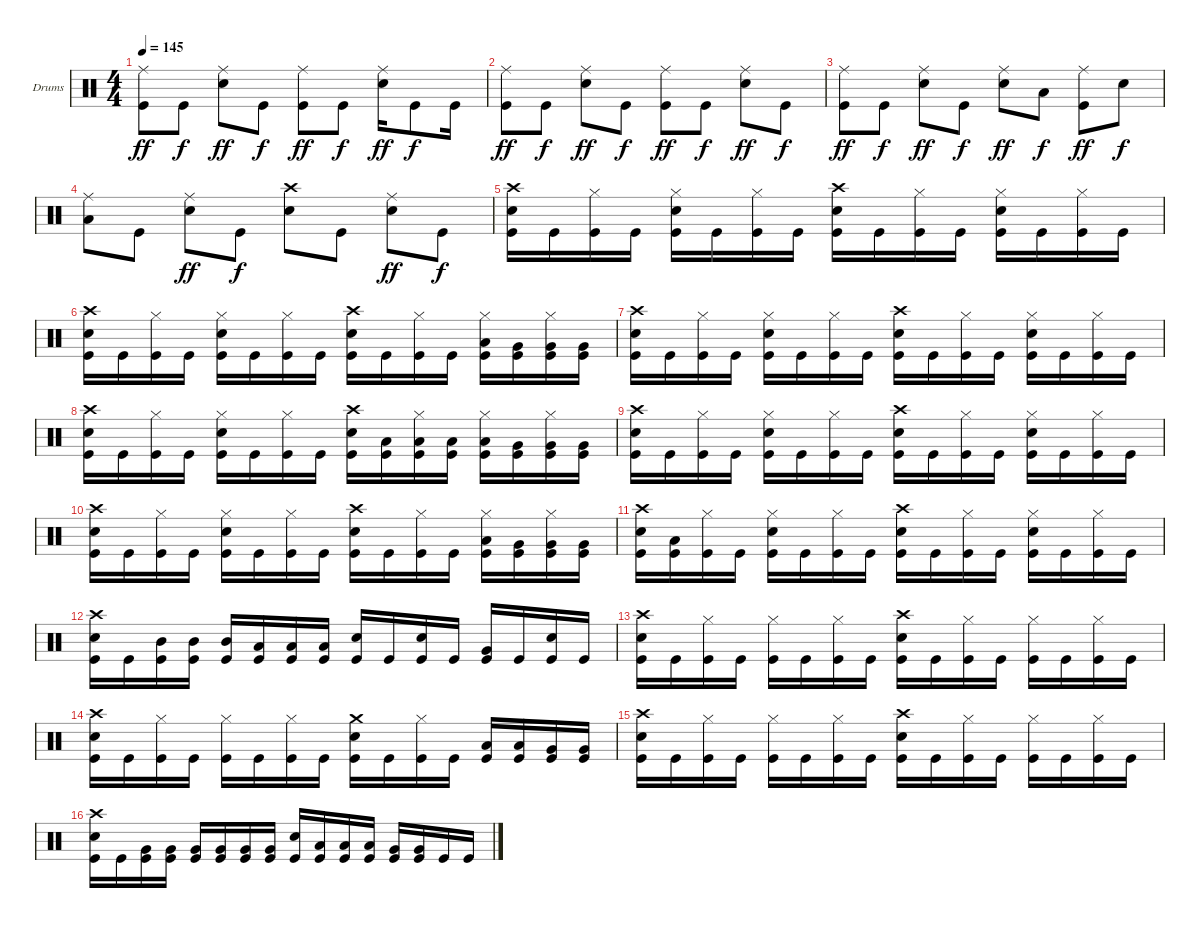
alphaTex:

\bracketExtendMode groupsimilarinstruments
\firstSystemTrackNameOrientation horizontal
\otherSystemsTrackNameOrientation horizontal
\track ("Drumkit" "Drums") {instrument percussion}
\staff {score}
\articulation defaults
\ts (4 4)
\tempo 145
\clef neutral
\ks c
("Ride (middle)" "Kick (hit)").8{dy ff} "Kick (hit)".8{dy f} ("Ride (middle)" "Snare (hit) 2").8{dy ff} "Kick (hit)".8{dy f} ("Ride (middle)" "Kick (hit)").8{dy ff} "Kick (hit)".8{dy f} ("Ride (middle)" "Snare (hit) 2").16{dy ff} "Kick (hit)".8{dy f} "Kick (hit)".16 |
("Ride (middle)" "Kick (hit)").8{dy ff} "Kick (hit)".8{dy f} ("Ride (middle)" "Snare (hit) 2").8{dy ff} "Kick (hit)".8{dy f} ("Ride (middle)" "Kick (hit)").8{dy ff} "Kick (hit)".8{dy f} ("Ride (middle)" "Snare (hit) 2").8{dy ff} "Kick (hit)".8{dy f} |
("Ride (middle)" "Kick (hit)").8{dy ff} "Kick (hit)".8{dy f} ("Ride (middle)" "Snare (hit) 2").8{dy ff} "Kick (hit)".8{dy f} ("Ride (middle)" "Snare (hit) 2").8{dy ff} "Low Tom (hit)".8{dy f} ("Ride (middle)" "Kick (hit)").8{dy ff} "Snare (hit) 2".8{dy f} |
("Ride (middle)" "Low Tom (hit)").8 "Kick (hit)".8 ("Ride (middle)" "Snare (hit) 2").8{dy ff} "Kick (hit)".8{dy f} ("Crash high (hit)" "Snare (hit) 2").8 "Kick (hit)".8 ("Ride (middle)" "Snare (hit) 2").8{dy ff} "Kick (hit)".8{dy f} |
("Crash high (hit)" "Snare (hit) 2" "Kick (hit)").16 "Kick (hit)".16 ("Hi-Hat (closed)" "Kick (hit)").16 "Kick (hit)".16 ("Hi-Hat (closed)" "Snare (hit) 2" "Kick (hit)").16 "Kick (hit)".16 ("Hi-Hat (closed)" "Kick (hit)").16 "Kick (hit)".16 ("Crash high (hit)" "Snare (hit) 2" "Kick (hit)").16 "Kick (hit)".16 ("Hi-Hat (closed)" "Kick (hit)").16 "Kick (hit)".16 ("Hi-Hat (closed)" "Snare (hit) 2" "Kick (hit)").16 "Kick (hit)".16 ("Hi-Hat (closed)" "Kick (hit)").16 "Kick (hit)".16 |
("Crash high (hit)" "Snare (hit) 2" "Kick (hit)").16 "Kick (hit)".16 ("Hi-Hat (closed)" "Kick (hit)").16 "Kick (hit)".16 ("Hi-Hat (closed)" "Snare (hit) 2" "Kick (hit)").16 "Kick (hit)".16 ("Hi-Hat (closed)" "Kick (hit)").16 "Kick (hit)".16 ("Crash high (hit)" "Snare (hit) 2" "Kick (hit)").16 "Kick (hit)".16 ("Hi-Hat (closed)" "Kick (hit)").16 "Kick (hit)".16 ("Hi-Hat (closed)" "Low Tom (hit)" "Kick (hit)").16 ("Very Low Tom (hit)" "Kick (hit)").16 ("Hi-Hat (closed)" "Very Low Tom (hit)" "Kick (hit)").16 ("Very Low Tom (hit)" "Kick (hit)").16 |
("Crash high (hit)" "Snare (hit) 2" "Kick (hit)").16 "Kick (hit)".16 ("Hi-Hat (closed)" "Kick (hit)").16 "Kick (hit)".16 ("Hi-Hat (closed)" "Snare (hit) 2" "Kick (hit)").16 "Kick (hit)".16 ("Hi-Hat (closed)" "Kick (hit)").16 "Kick (hit)".16 ("Crash high (hit)" "Snare (hit) 2" "Kick (hit)").16 "Kick (hit)".16 ("Hi-Hat (closed)" "Kick (hit)").16 "Kick (hit)".16 ("Hi-Hat (closed)" "Snare (hit) 2" "Kick (hit)").16 "Kick (hit)".16 ("Hi-Hat (closed)" "Kick (hit)").16 "Kick (hit)".16 |
("Crash high (hit)" "Snare (hit) 2" "Kick (hit)").16 "Kick (hit)".16 ("Hi-Hat (closed)" "Kick (hit)").16 "Kick (hit)".16 ("Hi-Hat (closed)" "Snare (hit) 2" "Kick (hit)").16 "Kick (hit)".16 ("Hi-Hat (closed)" "Kick (hit)").16 "Kick (hit)".16 ("Crash high (hit)" "Snare (hit) 2" "Kick (hit)").16 ("Low Tom (hit)" "Kick (hit)").16 ("Hi-Hat (closed)" "Low Tom (hit)" "Kick (hit)").16 ("Low Tom (hit)" "Kick (hit)").16 ("Hi-Hat (closed)" "Low Tom (hit)" "Kick (hit)").16 ("Very Low Tom (hit)" "Kick (hit)").16 ("Hi-Hat (closed)" "Very Low Tom (hit)" "Kick (hit)").16 ("Very Low Tom (hit)" "Kick (hit)").16 |
("Crash high (hit)" "Snare (hit) 2" "Kick (hit)").16 "Kick (hit)".16 ("Hi-Hat (closed)" "Kick (hit)").16 "Kick (hit)".16 ("Hi-Hat (closed)" "Snare (hit) 2" "Kick (hit)").16 "Kick (hit)".16 ("Hi-Hat (closed)" "Kick (hit)").16 "Kick (hit)".16 ("Crash high (hit)" "Snare (hit) 2" "Kick (hit)").16 "Kick (hit)".16 ("Hi-Hat (closed)" "Kick (hit)").16 "Kick (hit)".16 ("Hi-Hat (closed)" "Snare (hit) 2" "Kick (hit)").16 "Kick (hit)".16 ("Hi-Hat (closed)" "Kick (hit)").16 "Kick (hit)".16 |
("Crash high (hit)" "Snare (hit) 2" "Kick (hit)").16 "Kick (hit)".16 ("Hi-Hat (closed)" "Kick (hit)").16 "Kick (hit)".16 ("Hi-Hat (closed)" "Snare (hit) 2" "Kick (hit)").16 "Kick (hit)".16 ("Hi-Hat (closed)" "Kick (hit)").16 "Kick (hit)".16 ("Crash high (hit)" "Snare (hit) 2" "Kick (hit)").16 "Kick (hit)".16 ("Hi-Hat (closed)" "Kick (hit)").16 "Kick (hit)".16 ("Hi-Hat (closed)" "Low Tom (hit)" "Kick (hit)").16 ("Very Low Tom (hit)" "Kick (hit)").16 ("Hi-Hat (closed)" "Very Low Tom (hit)" "Kick (hit)").16 ("Very Low Tom (hit)" "Kick (hit)").16 |
("Crash high (hit)" "Snare (hit) 2" "Kick (hit)").16 ("Low Tom (hit)" "Kick (hit)").16 ("Hi-Hat (closed)" "Kick (hit)").16 "Kick (hit)".16 ("Hi-Hat (closed)" "Snare (hit) 2" "Kick (hit)").16 "Kick (hit)".16 ("Hi-Hat (closed)" "Kick (hit)").16 "Kick (hit)".16 ("Crash high (hit)" "Snare (hit) 2" "Kick (hit)").16 "Kick (hit)".16 ("Hi-Hat (closed)" "Kick (hit)").16 "Kick (hit)".16 ("Hi-Hat (closed)" "Snare (hit) 2" "Kick (hit)").16 "Kick (hit)".16 ("Hi-Hat (closed)" "Kick (hit)").16 "Kick (hit)".16 |
("Crash high (hit)" "Snare (hit) 2" "Kick (hit)").16 "Kick (hit)".16 ("Mid Tom (hit)" "Kick (hit)").16 ("Mid Tom (hit)" "Kick (hit)").16 ("Mid Tom (hit)" "Kick (hit)").16 ("Low Tom (hit)" "Kick (hit)").16 ("Low Tom (hit)" "Kick (hit)").16 ("Low Tom (hit)" "Kick (hit)").16 ("Snare (hit) 2" "Kick (hit)").16 "Kick (hit)".16 ("Snare (hit) 2" "Kick (hit)").16 "Kick (hit)".16 ("Very Low Tom (hit)" "Kick (hit)").16 "Kick (hit)".16 ("Snare (hit) 2" "Kick (hit)").16 "Kick (hit)".16 |
("Crash high (hit)" "Snare (hit) 2" "Kick (hit)").16 "Kick (hit)".16 ("Hi-Hat (closed)" "Kick (hit)").16 "Kick (hit)".16 ("Hi-Hat (closed)" "Kick (hit)").16 "Kick (hit)".16 ("Hi-Hat (closed)" "Kick (hit)").16 "Kick (hit)".16 ("Crash high (hit)" "Snare (hit) 2" "Kick (hit)").16 "Kick (hit)".16 ("Hi-Hat (closed)" "Kick (hit)").16 "Kick (hit)".16 ("Hi-Hat (closed)" "Kick (hit)").16 "Kick (hit)".16 ("Hi-Hat (closed)" "Kick (hit)").16 "Kick (hit)".16 |
("Crash high (hit)" "Snare (hit) 2" "Kick (hit)").16 "Kick (hit)".16 ("Hi-Hat (closed)" "Kick (hit)").16 "Kick (hit)".16 ("Hi-Hat (closed)" "Kick (hit)").16 "Kick (hit)".16 ("Hi-Hat (closed)" "Kick (hit)").16 "Kick (hit)".16 ("Crash medium (hit)" "Snare (hit) 2" "Kick (hit)").16 "Kick (hit)".16 ("Hi-Hat (closed)" "Kick (hit)").16 "Kick (hit)".16 ("Low Tom (hit)" "Kick (hit)").16 ("Low Tom (hit)" "Kick (hit)").16 ("Very Low Tom (hit)" "Kick (hit)").16 ("Very Low Tom (hit)" "Kick (hit)").16 |
("Crash high (hit)" "Snare (hit) 2" "Kick (hit)").16 "Kick (hit)".16 ("Hi-Hat (closed)" "Kick (hit)").16 "Kick (hit)".16 ("Hi-Hat (closed)" "Kick (hit)").16 "Kick (hit)".16 ("Hi-Hat (closed)" "Kick (hit)").16 "Kick (hit)".16 ("Crash high (hit)" "Snare (hit) 2" "Kick (hit)").16 "Kick (hit)".16 ("Hi-Hat (closed)" "Kick (hit)").16 "Kick (hit)".16 ("Hi-Hat (closed)" "Kick (hit)").16 "Kick (hit)".16 ("Hi-Hat (closed)" "Kick (hit)").16 "Kick (hit)".16 |
("Crash high (hit)" "Snare (hit) 2" "Kick (hit)").16 "Kick (hit)".16 ("Very Low Tom (hit)" "Kick (hit)").16 ("Very Low Tom (hit)" "Kick (hit)").16 ("Very Low Tom (hit)" "Kick (hit)").16 ("Very Low Tom (hit)" "Kick (hit)").16 ("Very Low Tom (hit)" "Kick (hit)").16 ("Very Low Tom (hit)" "Kick (hit)").16 ("Snare (hit) 2" "Kick (hit)").16 ("Low Tom (hit)" "Kick (hit)").16 ("Low Tom (hit)" "Kick (hit)").16 ("Low Tom (hit)" "Kick (hit)").16 ("Very Low Tom (hit)" "Kick (hit)").16 ("Very Low Tom (hit)" "Kick (hit)").16 "Kick (hit)".16 "Kick (hit)".16
